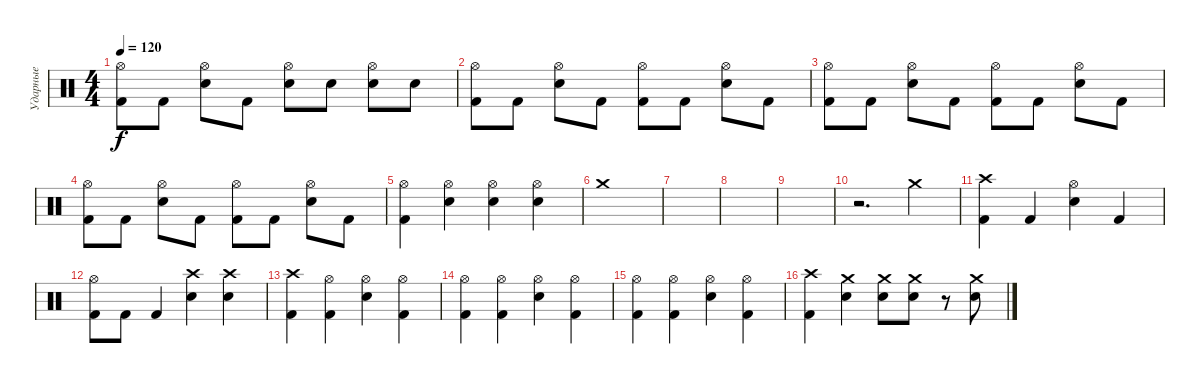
\track ("Ударные" "Ударные") {instrument percussion}
\staff {score}
\articulation defaults
\ts (4 4)
\tempo 120
\clef neutral
\ks c
("Hi-Hat (open)" "Kick (hit) 2").8{dy f} "Kick (hit) 2".8 ("Hi-Hat (open)" "Snare (hit) 2").8 "Kick (hit) 2".8 ("Hi-Hat (open)" "Snare (hit) 2").8 "Snare (hit) 2".8 ("Hi-Hat (open)" "Snare (hit) 2").8 "Snare (hit) 2".8 |
("Hi-Hat (open)" "Kick (hit) 2").8 "Kick (hit) 2".8 ("Hi-Hat (open)" "Snare (hit) 2").8 "Kick (hit) 2".8 ("Hi-Hat (open)" "Kick (hit) 2").8 "Kick (hit) 2".8 ("Hi-Hat (open)" "Snare (hit) 2").8 "Kick (hit) 2".8 |
("Hi-Hat (open)" "Kick (hit) 2").8 "Kick (hit) 2".8 ("Hi-Hat (open)" "Snare (hit) 2").8 "Kick (hit) 2".8 ("Hi-Hat (open)" "Kick (hit) 2").8 "Kick (hit) 2".8 ("Hi-Hat (open)" "Snare (hit) 2").8 "Kick (hit) 2".8 |
("Hi-Hat (open)" "Kick (hit) 2").8 "Kick (hit) 2".8 ("Hi-Hat (open)" "Snare (hit) 2").8 "Kick (hit) 2".8 ("Hi-Hat (open)" "Kick (hit) 2").8 "Kick (hit) 2".8 ("Hi-Hat (open)" "Snare (hit) 2").8 "Kick (hit) 2".8 |
("Hi-Hat (open)" "Kick (hit) 2").4 ("Hi-Hat (open)" "Snare (hit) 2").4 ("Hi-Hat (open)" "Snare (hit) 2").4 ("Hi-Hat (open)" "Snare (hit) 2").4 |
"Crash medium (hit)".1 |
|
|
|
r.2{d} "Crash medium (hit)".4 |
("Crash high (hit)" "Kick (hit) 2").4 "Kick (hit) 2".4 ("Hi-Hat (open)" "Snare (hit) 2").4 "Kick (hit) 2".4 |
("Hi-Hat (open)" "Kick (hit) 2").8 "Kick (hit) 2".8 "Kick (hit) 2".4 ("Crash high (hit)" "Snare (hit) 2").4 ("Crash high (hit)" "Snare (hit) 2").4 |
("Crash high (hit)" "Kick (hit) 2").4 ("Hi-Hat (open)" "Kick (hit) 2").4 ("Hi-Hat (open)" "Snare (hit) 2").4 ("Hi-Hat (open)" "Kick (hit) 2").4 |
("Hi-Hat (open)" "Kick (hit) 2").4 ("Hi-Hat (open)" "Kick (hit) 2").4 ("Hi-Hat (open)" "Snare (hit) 2").4 ("Hi-Hat (open)" "Kick (hit) 2").4 |
("Hi-Hat (open)" "Kick (hit) 2").4 ("Hi-Hat (open)" "Kick (hit) 2").4 ("Hi-Hat (open)" "Snare (hit) 2").4 ("Hi-Hat (open)" "Kick (hit) 2").4 |
("Crash high (hit)" "Kick (hit) 2").4 ("Crash medium (hit)" "Snare (hit) 2").4 ("Crash medium (hit)" "Snare (hit) 2").8 ("Crash medium (hit)" "Snare (hit) 2").8 r.8 ("Crash medium (hit)" "Snare (hit) 2").8
